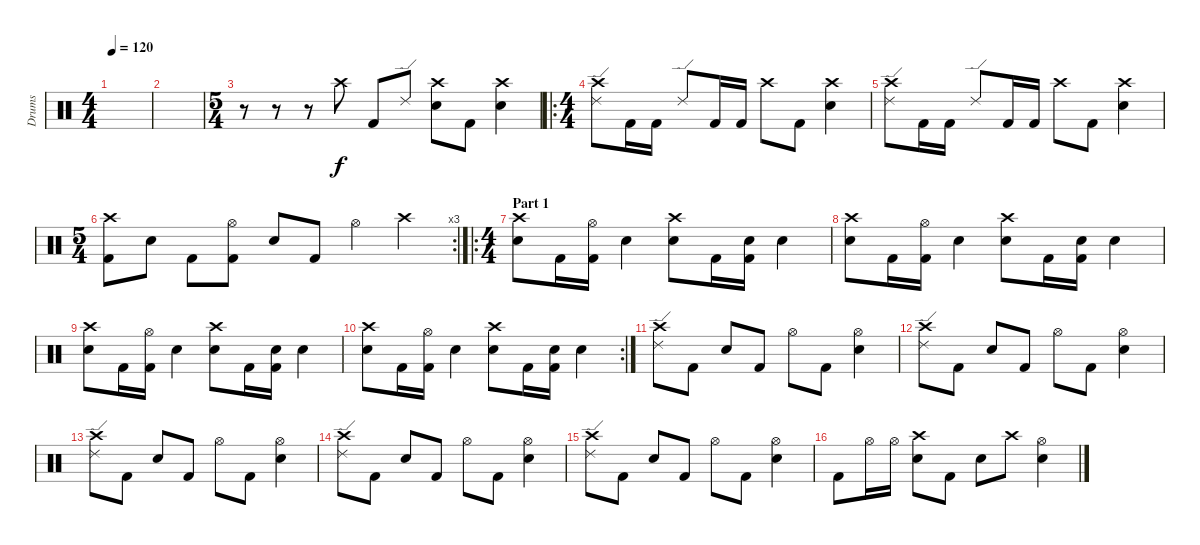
\track ("Drums" "Drums") {instrument percussion}
\staff {score}
\articulation defaults
\ts (4 4)
\tempo 120
\clef neutral
\ks c
|
|
\ts (5 4)
r.8 r.8 r.8 "Crash high (hit)".8 "Kick (hit) 2".8 "Ride (edge) 2".8 ("Crash high (hit)" "Electric Snare (hit)").8 "Kick (hit) 2".8 ("Snare (hit) 2" "Crash high (hit)").4 |
\ro
\ts (4 4)
("Crash high (hit)" "Ride (edge) 2").8 "Kick (hit) 2".16 "Kick (hit) 2".16 "Ride (edge) 2".8 "Kick (hit) 2".16 "Kick (hit) 2".16 "Crash high (hit)".8 "Kick (hit) 2".8 ("Crash high (hit)" "Electric Snare (hit)").4 |
("Crash high (hit)" "Ride (edge) 2").8 "Kick (hit) 2".16 "Kick (hit) 2".16 "Ride (edge) 2".8 "Kick (hit) 2".16 "Kick (hit) 2".16 "Crash high (hit)".8 "Kick (hit) 2".8 ("Crash high (hit)" "Electric Snare (hit)").4 |
\rc 3
\ts (5 4)
("Crash high (hit)" "Kick (hit) 2").8 "Snare (hit) 2".8 "Kick (hit) 2".8 ("Kick (hit) 2" "Hi-Hat (open)").8 "Electric Snare (hit)".8 "Kick (hit) 2".8 "Hi-Hat (open)".4 "Crash high (hit)".4 |
\ro
\ts (4 4)
\section ("" "Part 1")
("Electric Snare (hit)" "Crash high (hit)").8 "Kick (hit) 2".16 ("Hi-Hat (open)" "Kick (hit) 2").16 "Electric Snare (hit)".4 ("Electric Snare (hit)" "Crash high (hit)").8 "Kick (hit) 2".16 ("Electric Snare (hit)" "Kick (hit) 2").16 "Electric Snare (hit)".4 |
("Electric Snare (hit)" "Crash high (hit)").8 "Kick (hit) 2".16 ("Hi-Hat (open)" "Kick (hit) 2").16 "Electric Snare (hit)".4 ("Electric Snare (hit)" "Crash high (hit)").8 "Kick (hit) 2".16 ("Electric Snare (hit)" "Kick (hit) 2").16 "Electric Snare (hit)".4 |
("Electric Snare (hit)" "Crash high (hit)").8 "Kick (hit) 2".16 ("Hi-Hat (open)" "Kick (hit) 2").16 "Electric Snare (hit)".4 ("Electric Snare (hit)" "Crash high (hit)").8 "Kick (hit) 2".16 ("Electric Snare (hit)" "Kick (hit) 2").16 "Electric Snare (hit)".4 |
\rc 2
("Electric Snare (hit)" "Crash high (hit)").8 "Kick (hit) 2".16 ("Hi-Hat (open)" "Kick (hit) 2").16 "Electric Snare (hit)".4 ("Electric Snare (hit)" "Crash high (hit)").8 "Kick (hit) 2".16 ("Electric Snare (hit)" "Kick (hit) 2").16 "Electric Snare (hit)".4 |
("Ride (edge) 2" "Crash high (hit)").8 "Kick (hit) 2".8 "Snare (hit) 2".8 "Kick (hit) 2".8 "Hi-Hat (open)".8 "Kick (hit) 2".8 ("Hi-Hat (open)" "Electric Snare (hit)").4 |
("Ride (edge) 2" "Crash high (hit)").8 "Kick (hit) 2".8 "Snare (hit) 2".8 "Kick (hit) 2".8 "Hi-Hat (open)".8 "Kick (hit) 2".8 ("Hi-Hat (open)" "Electric Snare (hit)").4 |
("Ride (edge) 2" "Crash high (hit)").8 "Kick (hit) 2".8 "Snare (hit) 2".8 "Kick (hit) 2".8 "Hi-Hat (open)".8 "Kick (hit) 2".8 ("Hi-Hat (open)" "Electric Snare (hit)").4 |
("Ride (edge) 2" "Crash high (hit)").8 "Kick (hit) 2".8 "Snare (hit) 2".8 "Kick (hit) 2".8 "Hi-Hat (open)".8 "Kick (hit) 2".8 ("Hi-Hat (open)" "Electric Snare (hit)").4 |
("Ride (edge) 2" "Crash high (hit)").8 "Kick (hit) 2".8 "Snare (hit) 2".8 "Kick (hit) 2".8 "Hi-Hat (open)".8 "Kick (hit) 2".8 ("Hi-Hat (open)" "Electric Snare (hit)").4 |
"Kick (hit) 2".8 "Hi-Hat (open)".16 "Hi-Hat (open)".16 ("Electric Snare (hit)" "Crash high (hit)").8 "Kick (hit) 2".8 "Snare (hit) 2".8 "Crash high (hit)".8 ("Hi-Hat (open)" "Snare (hit) 2").4
